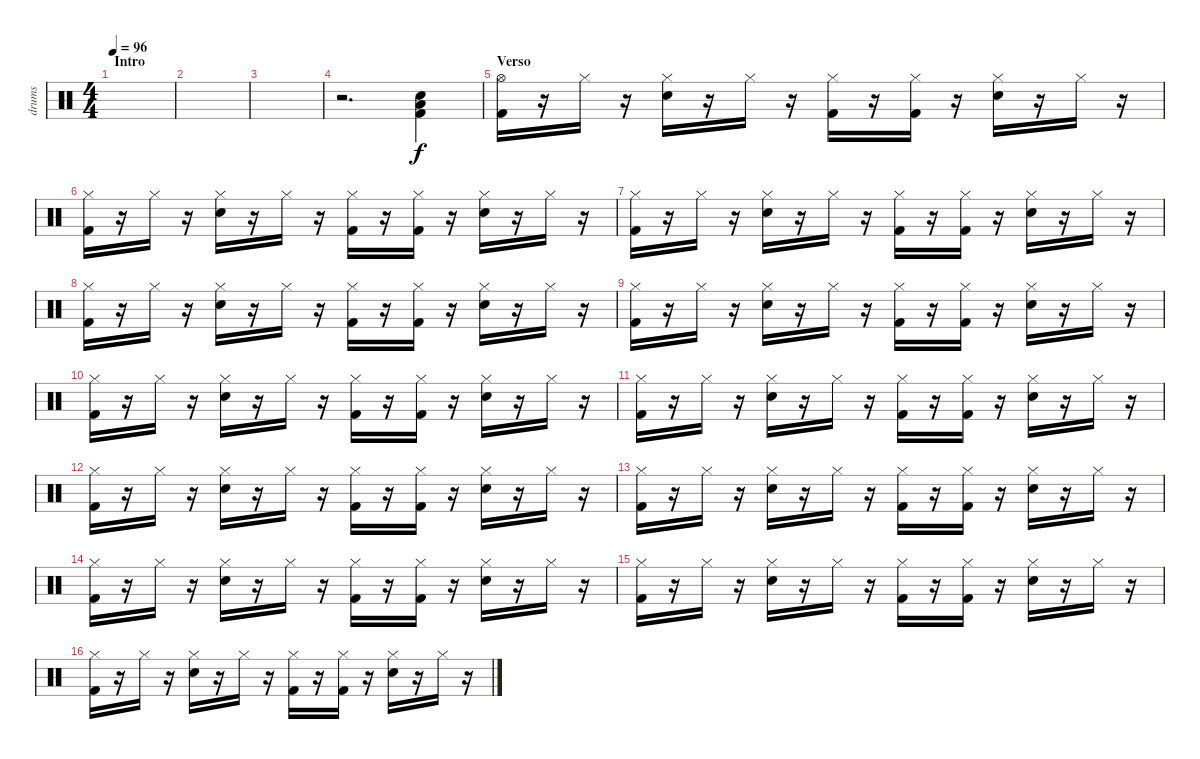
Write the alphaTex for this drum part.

\track ("drums" "drums") {instrument percussion}
\staff {score}
\articulation defaults
\ts (4 4)
\section ("" "Intro")
\tempo 96
\clef neutral
\ks c
|
|
|
r.2{d} ("Low Tom (hit)" "Kick (hit) 2" "Electric Snare (hit)").4 |
\section ("" "Verso")
("Kick (hit) 2" "Hi-Hat (open)").16 r.16 "Hi-Hat (closed)".16 r.16 ("Hi-Hat (closed)" "Electric Snare (hit)").16 r.16 "Hi-Hat (closed)".16 r.16 ("Kick (hit) 2" "Hi-Hat (closed)").16 r.16 ("Kick (hit) 2" "Hi-Hat (closed)").16 r.16 ("Hi-Hat (closed)" "Electric Snare (hit)").16 r.16 "Hi-Hat (closed)".16 r.16 |
("Kick (hit) 2" "Hi-Hat (closed)").16 r.16 "Hi-Hat (closed)".16 r.16 ("Hi-Hat (closed)" "Electric Snare (hit)").16 r.16 "Hi-Hat (closed)".16 r.16 ("Kick (hit) 2" "Hi-Hat (closed)").16 r.16 ("Kick (hit) 2" "Hi-Hat (closed)").16 r.16 ("Hi-Hat (closed)" "Electric Snare (hit)").16 r.16 "Hi-Hat (closed)".16 r.16 |
("Kick (hit) 2" "Hi-Hat (closed)").16 r.16 "Hi-Hat (closed)".16 r.16 ("Hi-Hat (closed)" "Electric Snare (hit)").16 r.16 "Hi-Hat (closed)".16 r.16 ("Kick (hit) 2" "Hi-Hat (closed)").16 r.16 ("Kick (hit) 2" "Hi-Hat (closed)").16 r.16 ("Hi-Hat (closed)" "Electric Snare (hit)").16 r.16 "Hi-Hat (closed)".16 r.16 |
("Kick (hit) 2" "Hi-Hat (closed)").16 r.16 "Hi-Hat (closed)".16 r.16 ("Hi-Hat (closed)" "Electric Snare (hit)").16 r.16 "Hi-Hat (closed)".16 r.16 ("Kick (hit) 2" "Hi-Hat (closed)").16 r.16 ("Kick (hit) 2" "Hi-Hat (closed)").16 r.16 ("Hi-Hat (closed)" "Electric Snare (hit)").16 r.16 "Hi-Hat (closed)".16 r.16 |
("Kick (hit) 2" "Hi-Hat (closed)").16 r.16 "Hi-Hat (closed)".16 r.16 ("Hi-Hat (closed)" "Electric Snare (hit)").16 r.16 "Hi-Hat (closed)".16 r.16 ("Kick (hit) 2" "Hi-Hat (closed)").16 r.16 ("Kick (hit) 2" "Hi-Hat (closed)").16 r.16 ("Hi-Hat (closed)" "Electric Snare (hit)").16 r.16 "Hi-Hat (closed)".16 r.16 |
("Kick (hit) 2" "Hi-Hat (closed)").16 r.16 "Hi-Hat (closed)".16 r.16 ("Hi-Hat (closed)" "Electric Snare (hit)").16 r.16 "Hi-Hat (closed)".16 r.16 ("Kick (hit) 2" "Hi-Hat (closed)").16 r.16 ("Kick (hit) 2" "Hi-Hat (closed)").16 r.16 ("Hi-Hat (closed)" "Electric Snare (hit)").16 r.16 "Hi-Hat (closed)".16 r.16 |
("Kick (hit) 2" "Hi-Hat (closed)").16 r.16 "Hi-Hat (closed)".16 r.16 ("Hi-Hat (closed)" "Electric Snare (hit)").16 r.16 "Hi-Hat (closed)".16 r.16 ("Kick (hit) 2" "Hi-Hat (closed)").16 r.16 ("Kick (hit) 2" "Hi-Hat (closed)").16 r.16 ("Hi-Hat (closed)" "Electric Snare (hit)").16 r.16 "Hi-Hat (closed)".16 r.16 |
("Kick (hit) 2" "Hi-Hat (closed)").16 r.16 "Hi-Hat (closed)".16 r.16 ("Hi-Hat (closed)" "Electric Snare (hit)").16 r.16 "Hi-Hat (closed)".16 r.16 ("Kick (hit) 2" "Hi-Hat (closed)").16 r.16 ("Kick (hit) 2" "Hi-Hat (closed)").16 r.16 ("Hi-Hat (closed)" "Electric Snare (hit)").16 r.16 "Hi-Hat (closed)".16 r.16 |
("Kick (hit) 2" "Hi-Hat (closed)").16 r.16 "Hi-Hat (closed)".16 r.16 ("Hi-Hat (closed)" "Electric Snare (hit)").16 r.16 "Hi-Hat (closed)".16 r.16 ("Kick (hit) 2" "Hi-Hat (closed)").16 r.16 ("Kick (hit) 2" "Hi-Hat (closed)").16 r.16 ("Hi-Hat (closed)" "Electric Snare (hit)").16 r.16 "Hi-Hat (closed)".16 r.16 |
("Kick (hit) 2" "Hi-Hat (closed)").16 r.16 "Hi-Hat (closed)".16 r.16 ("Hi-Hat (closed)" "Electric Snare (hit)").16 r.16 "Hi-Hat (closed)".16 r.16 ("Kick (hit) 2" "Hi-Hat (closed)").16 r.16 ("Kick (hit) 2" "Hi-Hat (closed)").16 r.16 ("Hi-Hat (closed)" "Electric Snare (hit)").16 r.16 "Hi-Hat (closed)".16 r.16 |
("Kick (hit) 2" "Hi-Hat (closed)").16 r.16 "Hi-Hat (closed)".16 r.16 ("Hi-Hat (closed)" "Electric Snare (hit)").16 r.16 "Hi-Hat (closed)".16 r.16 ("Kick (hit) 2" "Hi-Hat (closed)").16 r.16 ("Kick (hit) 2" "Hi-Hat (closed)").16 r.16 ("Hi-Hat (closed)" "Electric Snare (hit)").16 r.16 "Hi-Hat (closed)".16 r.16 |
("Kick (hit) 2" "Hi-Hat (closed)").16 r.16 "Hi-Hat (closed)".16 r.16 ("Hi-Hat (closed)" "Electric Snare (hit)").16 r.16 "Hi-Hat (closed)".16 r.16 ("Kick (hit) 2" "Hi-Hat (closed)").16 r.16 ("Kick (hit) 2" "Hi-Hat (closed)").16 r.16 ("Hi-Hat (closed)" "Electric Snare (hit)").16 r.16 "Hi-Hat (closed)".16 r.16
